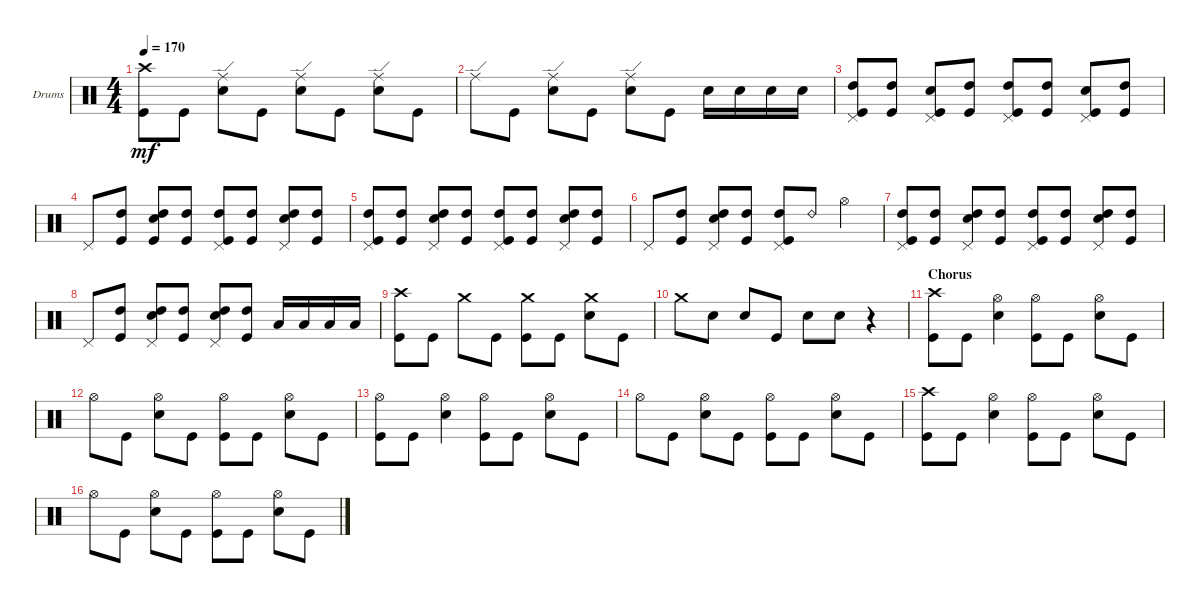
\defaultSystemsLayout 4
\bracketExtendMode groupsimilarinstruments
\firstSystemTrackNameOrientation horizontal
\otherSystemsTrackNameOrientation horizontal
\track ("Drumkit" "Drums") {instrument percussion}
\staff {score}
\articulation defaults
\ts (4 4)
\tempo 170
\clef neutral
\scale
0.333333
\ks c
("Crash high (hit)" "Kick (hit)").8{dy mf} "Kick (hit)".8 ("Ride (edge)" "Snare (hit) 2").8 "Kick (hit)".8 ("Ride (edge)" "Snare (hit) 2").8 "Kick (hit)".8 ("Ride (edge)" "Snare (hit) 2").8 "Kick (hit)".8 |
\scale
0.333333 "Ride (edge)".8 "Kick (hit)".8 ("Snare (hit) 2" "Ride (edge)").8 "Kick (hit)".8 ("Snare (hit) 2" "Ride (edge)").8 "Kick (hit)".8 "Snare (hit) 2".16 "Snare (hit) 2".16 "Snare (hit) 2".16 "Snare (hit) 2".16 |
\scale
0.333333 ("Pedal Hi-Hat (hit)" "High Tom (hit)" "Kick (hit)").8 ("High Tom (hit)" "Kick (hit)").8 ("Pedal Hi-Hat (hit)" "Snare (hit) 2" "Kick (hit)").8 ("Kick (hit)" "High Tom (hit)").8 ("Pedal Hi-Hat (hit)" "High Tom (hit)" "Kick (hit)").8 ("High Tom (hit)" "Kick (hit)").8 ("Pedal Hi-Hat (hit)" "Snare (hit) 2" "Kick (hit)").8 ("Kick (hit)" "High Tom (hit)").8 |
\scale
0.333333 "Pedal Hi-Hat (hit)".8 ("Kick (hit)" "High Tom (hit)").8 ("High Tom (hit)" "Snare (hit) 2" "Kick (hit)").8 ("Kick (hit)" "High Tom (hit)").8 ("Kick (hit)" "Pedal Hi-Hat (hit)" "High Tom (hit)").8 ("Kick (hit)" "High Tom (hit)").8 ("High Tom (hit)" "Snare (hit) 2" "Pedal Hi-Hat (hit)").8 ("Kick (hit)" "High Tom (hit)").8 |
\scale
0.333333 ("Pedal Hi-Hat (hit)" "High Tom (hit)" "Kick (hit)").8 ("Kick (hit)" "High Tom (hit)").8 ("Snare (hit) 2" "High Tom (hit)" "Pedal Hi-Hat (hit)").8 ("High Tom (hit)" "Kick (hit)").8 ("Pedal Hi-Hat (hit)" "High Tom (hit)" "Kick (hit)").8 ("Kick (hit)" "High Tom (hit)").8 ("Snare (hit) 2" "High Tom (hit)" "Pedal Hi-Hat (hit)").8 ("High Tom (hit)" "Kick (hit)").8 |
\scale
0.333333 "Pedal Hi-Hat (hit)".8 ("Kick (hit)" "High Tom (hit)").8 ("High Tom (hit)" "Snare (hit) 2" "Pedal Hi-Hat (hit)").8 ("Kick (hit)" "High Tom (hit)").8 ("Kick (hit)" "High Tom (hit)" "Pedal Hi-Hat (hit)").8 "Ride (bell) 2".8 "Hi-Hat (open)".4 |
\scale
0.333333 ("Pedal Hi-Hat (hit)" "High Tom (hit)" "Kick (hit)").8 ("Kick (hit)" "High Tom (hit)").8 ("Snare (hit) 2" "High Tom (hit)" "Pedal Hi-Hat (hit)").8 ("Kick (hit)" "High Tom (hit)").8 ("Pedal Hi-Hat (hit)" "High Tom (hit)" "Kick (hit)").8 ("Kick (hit)" "High Tom (hit)").8 ("Snare (hit) 2" "High Tom (hit)" "Pedal Hi-Hat (hit)").8 ("Kick (hit)" "High Tom (hit)").8 |
\scale
0.333333 "Pedal Hi-Hat (hit)".8 ("Kick (hit)" "High Tom (hit)").8 ("High Tom (hit)" "Snare (hit) 2" "Pedal Hi-Hat (hit)").8 ("Kick (hit)" "High Tom (hit)").8 ("High Tom (hit)" "Snare (hit) 2" "Pedal Hi-Hat (hit)").8 ("Kick (hit)" "High Tom (hit)").8 "Low Tom (hit)".16 "Low Tom (hit)".16 "Low Tom (hit)".16 "Low Tom (hit)".16 |
("Crash high (hit)" "Kick (hit)").8 "Kick (hit)".8 "Crash medium (hit)".8 "Kick (hit)".8 ("Kick (hit)" "Crash medium (hit)").8 "Kick (hit)".8 ("Crash medium (hit)" "Snare (hit) 2").8 "Kick (hit)".8 |
"Crash medium (hit)".8 "Snare (hit) 2".8 "Snare (hit) 2".8 "Kick (hit)".8 "Snare (hit) 2".8 "Snare (hit) 2".8 r.4 |
\section ("" "Chorus")
("Kick (hit)" "Crash high (hit)").8 "Kick (hit)".8 ("Snare (hit) 2" "Hi-Hat (open)").4 ("Kick (hit)" "Hi-Hat (open)").8 "Kick (hit)".8 ("Snare (hit) 2" "Hi-Hat (open)").8 "Kick (hit)".8 |
"Hi-Hat (open)".8 "Kick (hit)".8 ("Snare (hit) 2" "Hi-Hat (open)").8 "Kick (hit)".8 ("Hi-Hat (open)" "Kick (hit)").8 "Kick (hit)".8 ("Snare (hit) 2" "Hi-Hat (open)").8 "Kick (hit)".8 |
("Hi-Hat (open)" "Kick (hit)").8 "Kick (hit)".8 ("Snare (hit) 2" "Hi-Hat (open)").4 ("Kick (hit)" "Hi-Hat (open)").8 "Kick (hit)".8 ("Snare (hit) 2" "Hi-Hat (open)").8 "Kick (hit)".8 |
"Hi-Hat (open)".8 "Kick (hit)".8 ("Snare (hit) 2" "Hi-Hat (open)").8 "Kick (hit)".8 ("Hi-Hat (open)" "Kick (hit)").8 "Kick (hit)".8 ("Snare (hit) 2" "Hi-Hat (open)").8 "Kick (hit)".8 |
("Kick (hit)" "Crash high (hit)").8 "Kick (hit)".8 ("Snare (hit) 2" "Hi-Hat (open)").4 ("Kick (hit)" "Hi-Hat (open)").8 "Kick (hit)".8 ("Snare (hit) 2" "Hi-Hat (open)").8 "Kick (hit)".8 |
"Hi-Hat (open)".8 "Kick (hit)".8 ("Snare (hit) 2" "Hi-Hat (open)").8 "Kick (hit)".8 ("Hi-Hat (open)" "Kick (hit)").8 "Kick (hit)".8 ("Snare (hit) 2" "Hi-Hat (open)").8 "Kick (hit)".8
